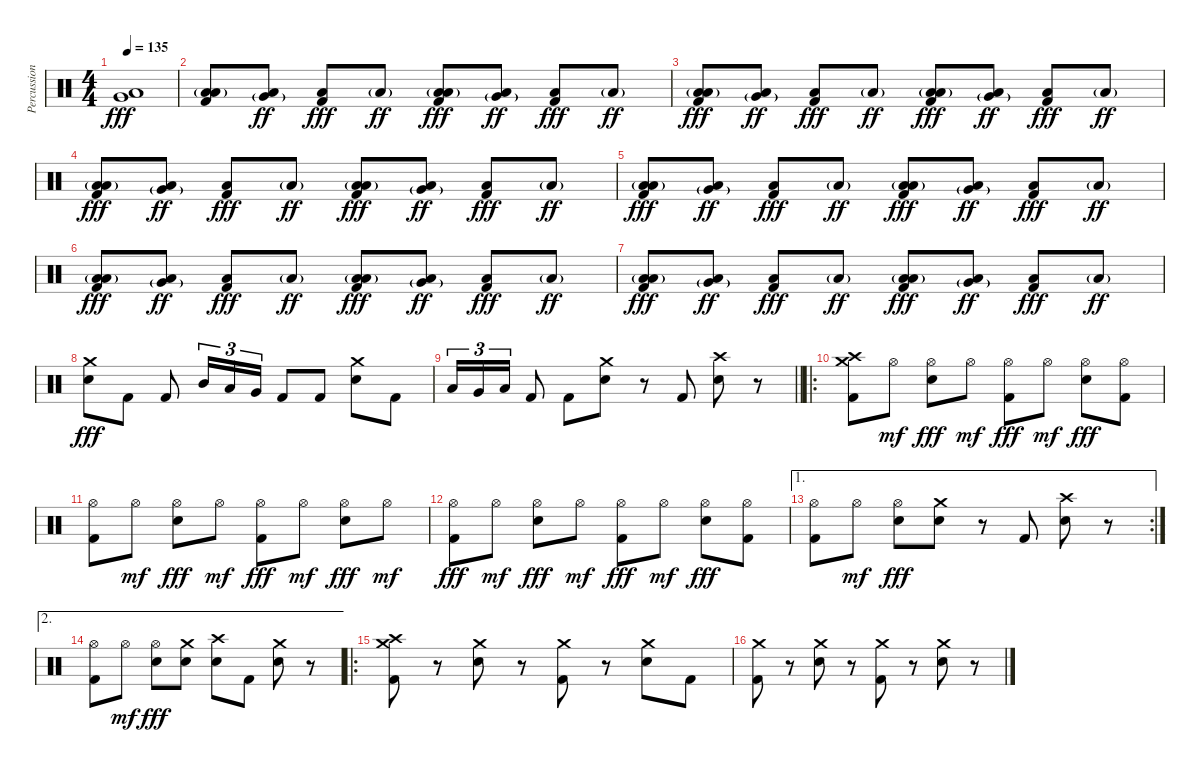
\track ("Percussions" "Percussion") {instrument percussion}
\staff {score}
\articulation defaults
\ts (4 4)
\tempo 135
\clef neutral
\ks c
("Low Floor Tom (hit)" "Very Low Tom (hit)").1{dy fff} |
("Low Tom (hit)"{g} "Low Floor Tom (hit)" "Kick (hit) 2").8 ("Very Low Tom (hit)"{g} "Low Floor Tom (hit)").8{dy ff} ("Low Floor Tom (hit)" "Kick (hit) 2").8{dy fff} "Low Floor Tom (hit)"{g}.8{dy ff} ("Low Tom (hit)"{g} "Low Floor Tom (hit)" "Kick (hit) 2").8{dy fff} ("Very Low Tom (hit)"{g} "Low Floor Tom (hit)").8{dy ff} ("Low Floor Tom (hit)" "Kick (hit) 2").8{dy fff} "Low Floor Tom (hit)"{g}.8{dy ff} |
("Low Tom (hit)"{g} "Low Floor Tom (hit)" "Kick (hit) 2").8{dy fff} ("Very Low Tom (hit)"{g} "Low Floor Tom (hit)").8{dy ff} ("Low Floor Tom (hit)" "Kick (hit) 2").8{dy fff} "Low Floor Tom (hit)"{g}.8{dy ff} ("Low Tom (hit)"{g} "Low Floor Tom (hit)" "Kick (hit) 2").8{dy fff} ("Very Low Tom (hit)"{g} "Low Floor Tom (hit)").8{dy ff} ("Low Floor Tom (hit)" "Kick (hit) 2").8{dy fff} "Low Floor Tom (hit)"{g}.8{dy ff} |
("Low Tom (hit)"{g} "Low Floor Tom (hit)" "Kick (hit) 2").8{dy fff} ("Very Low Tom (hit)"{g} "Low Floor Tom (hit)").8{dy ff} ("Low Floor Tom (hit)" "Kick (hit) 2").8{dy fff} "Low Floor Tom (hit)"{g}.8{dy ff} ("Low Tom (hit)"{g} "Low Floor Tom (hit)" "Kick (hit) 2").8{dy fff} ("Very Low Tom (hit)"{g} "Low Floor Tom (hit)").8{dy ff} ("Low Floor Tom (hit)" "Kick (hit) 2").8{dy fff} "Low Floor Tom (hit)"{g}.8{dy ff} |
("Low Tom (hit)"{g} "Low Floor Tom (hit)" "Kick (hit) 2").8{dy fff} ("Very Low Tom (hit)"{g} "Low Floor Tom (hit)").8{dy ff} ("Low Floor Tom (hit)" "Kick (hit) 2").8{dy fff} "Low Floor Tom (hit)"{g}.8{dy ff} ("Low Tom (hit)"{g} "Low Floor Tom (hit)" "Kick (hit) 2").8{dy fff} ("Very Low Tom (hit)"{g} "Low Floor Tom (hit)").8{dy ff} ("Low Floor Tom (hit)" "Kick (hit) 2").8{dy fff} "Low Floor Tom (hit)"{g}.8{dy ff} |
("Low Tom (hit)"{g} "Low Floor Tom (hit)" "Kick (hit) 2").8{dy fff} ("Very Low Tom (hit)"{g} "Low Floor Tom (hit)").8{dy ff} ("Low Floor Tom (hit)" "Kick (hit) 2").8{dy fff} "Low Floor Tom (hit)"{g}.8{dy ff} ("Low Tom (hit)"{g} "Low Floor Tom (hit)" "Kick (hit) 2").8{dy fff} ("Very Low Tom (hit)"{g} "Low Floor Tom (hit)").8{dy ff} ("Low Floor Tom (hit)" "Kick (hit) 2").8{dy fff} "Low Floor Tom (hit)"{g}.8{dy ff} |
("Low Tom (hit)"{g} "Low Floor Tom (hit)" "Kick (hit) 2").8{dy fff} ("Very Low Tom (hit)"{g} "Low Floor Tom (hit)").8{dy ff} ("Low Floor Tom (hit)" "Kick (hit) 2").8{dy fff} "Low Floor Tom (hit)"{g}.8{dy ff} ("Low Tom (hit)"{g} "Low Floor Tom (hit)" "Kick (hit) 2").8{dy fff} ("Very Low Tom (hit)"{g} "Low Floor Tom (hit)").8{dy ff} ("Low Floor Tom (hit)" "Kick (hit) 2").8{dy fff} "Low Floor Tom (hit)"{g}.8{dy ff} |
("Crash medium (hit)" "Electric Snare (hit)").8{dy fff} "Kick (hit) 2".8 "Kick (hit) 2".8 "Mid Tom (hit)".16{tu (3 2)} "Low Tom (hit)".16{tu (3 2)} "Very Low Tom (hit)".16{tu (3 2)} "Kick (hit) 2".8 "Kick (hit) 2".8 ("Crash medium (hit)" "Electric Snare (hit)").8 "Kick (hit) 2".8 |
\barLineRight lightlight "Low Tom (hit)".16{tu (3 2)} "Very Low Tom (hit)".16{tu (3 2)} "Low Floor Tom (hit)".16{tu (3 2)} "Kick (hit) 2".8 "Kick (hit) 2".8
("Crash medium (hit)" "Electric Snare (hit)").8 r.8 "Kick (hit) 2".8 ("Crash high (hit)" "Electric Snare (hit)").8 r.8 |
\ro
("Crash medium (hit)" "Crash high (hit)" "Kick (hit) 2").8 "Hi-Hat (open)".8{dy mf} ("Hi-Hat (open)" "Electric Snare (hit)").8{dy fff} "Hi-Hat (open)".8{dy mf} ("Hi-Hat (open)" "Kick (hit) 2").8{dy fff} "Hi-Hat (open)".8{dy mf} ("Hi-Hat (open)" "Electric Snare (hit)").8{dy fff} ("Hi-Hat (open)" "Kick (hit) 2").8 |
("Hi-Hat (open)" "Kick (hit) 2").8 "Hi-Hat (open)".8{dy mf} ("Hi-Hat (open)" "Electric Snare (hit)").8{dy fff} "Hi-Hat (open)".8{dy mf} ("Hi-Hat (open)" "Kick (hit) 2").8{dy fff} "Hi-Hat (open)".8{dy mf} ("Hi-Hat (open)" "Electric Snare (hit)").8{dy fff} "Hi-Hat (open)".8{dy mf} |
("Hi-Hat (open)" "Kick (hit) 2").8{dy fff} "Hi-Hat (open)".8{dy mf} ("Hi-Hat (open)" "Electric Snare (hit)").8{dy fff} "Hi-Hat (open)".8{dy mf} ("Hi-Hat (open)" "Kick (hit) 2").8{dy fff} "Hi-Hat (open)".8{dy mf} ("Hi-Hat (open)" "Electric Snare (hit)").8{dy fff} ("Hi-Hat (open)" "Kick (hit) 2").8 |
\ae 1
\rc 2
("Hi-Hat (open)" "Kick (hit) 2").8 "Hi-Hat (open)".8{dy mf} ("Hi-Hat (open)" "Electric Snare (hit)").8{dy fff} ("Crash medium (hit)" "Electric Snare (hit)").8 r.8 "Kick (hit) 2".8 ("Crash high (hit)" "Electric Snare (hit)").8 r.8 |
\ae 2
("Hi-Hat (open)" "Kick (hit) 2").8 "Hi-Hat (open)".8{dy mf} ("Hi-Hat (open)" "Electric Snare (hit)").8{dy fff} ("Crash medium (hit)" "Electric Snare (hit)").8 ("Crash high (hit)" "Electric Snare (hit)").8 "Kick (hit) 2".8 ("Crash medium (hit)" "Electric Snare (hit)").8 r.8 |
\ro
("Crash medium (hit)" "Crash high (hit)" "Kick (hit) 2").8 r.8 ("Crash medium (hit)" "Electric Snare (hit)").8 r.8 ("Crash medium (hit)" "Kick (hit) 2").8 r.8 ("Crash medium (hit)" "Electric Snare (hit)").8 "Kick (hit) 2".8 |
("Crash medium (hit)" "Kick (hit) 2").8 r.8 ("Crash medium (hit)" "Electric Snare (hit)").8 r.8 ("Crash medium (hit)" "Kick (hit) 2").8 r.8 ("Crash medium (hit)" "Electric Snare (hit)").8 r.8
